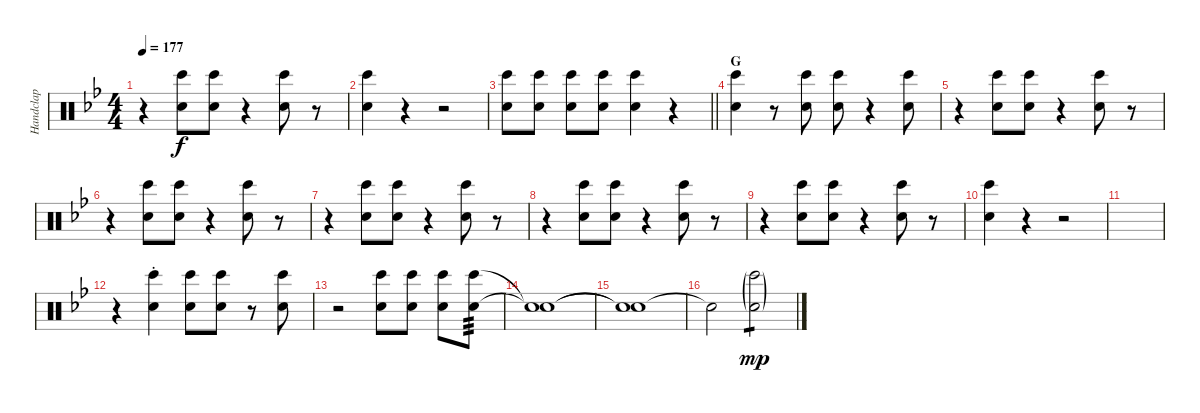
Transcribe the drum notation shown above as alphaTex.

\track ("Handclap" "Handclap") {instrument percussion}
\staff {score}
\articulation defaults
\ts (4 4)
\tempo 177
\clef neutral
\ks bb
r.4{dy f} ("Hand Clap (hit)" "Bongo High (hit)").8 ("Hand Clap (hit)" "Bongo High (hit)").8 r.4 ("Hand Clap (hit)" "Bongo High (hit)").8 r.8 |
("Hand Clap (hit)" "Bongo High (hit)").4 r.4 r.2 |
\barLineRight lightlight
("Hand Clap (hit)" "Bongo High (hit)").8 ("Hand Clap (hit)" "Bongo High (hit)").8 ("Hand Clap (hit)" "Bongo High (hit)").8 ("Hand Clap (hit)" "Bongo High (hit)").8 ("Hand Clap (hit)" "Bongo High (hit)").4 r.4 |
\section ("" "G")
("Hand Clap (hit)" "Bongo High (hit)").4 r.8 ("Hand Clap (hit)" "Bongo High (hit)").8 ("Hand Clap (hit)" "Bongo High (hit)").8 r.4 ("Hand Clap (hit)" "Bongo High (hit)").8 |
r.4 ("Hand Clap (hit)" "Bongo High (hit)").8 ("Hand Clap (hit)" "Bongo High (hit)").8 r.4 ("Hand Clap (hit)" "Bongo High (hit)").8 r.8 |
r.4 ("Hand Clap (hit)" "Bongo High (hit)").8 ("Hand Clap (hit)" "Bongo High (hit)").8 r.4 ("Hand Clap (hit)" "Bongo High (hit)").8 r.8 |
r.4 ("Hand Clap (hit)" "Bongo High (hit)").8 ("Hand Clap (hit)" "Bongo High (hit)").8 r.4 ("Hand Clap (hit)" "Bongo High (hit)").8 r.8 |
r.4 ("Hand Clap (hit)" "Bongo High (hit)").8 ("Hand Clap (hit)" "Bongo High (hit)").8 r.4 ("Hand Clap (hit)" "Bongo High (hit)").8 r.8 |
r.4 ("Hand Clap (hit)" "Bongo High (hit)").8 ("Hand Clap (hit)" "Bongo High (hit)").8 r.4 ("Hand Clap (hit)" "Bongo High (hit)").8 r.8 |
("Hand Clap (hit)" "Bongo High (hit)").4 r.4 r.2 |
|
r.4 ("Hand Clap (hit)"{st} "Bongo High (hit)"{st}).4 ("Hand Clap (hit)" "Bongo High (hit)").8 ("Hand Clap (hit)" "Bongo High (hit)").8 r.8 ("Hand Clap (hit)" "Bongo High (hit)").8 |
r.2 ("Hand Clap (hit)" "Bongo High (hit)").8 ("Hand Clap (hit)" "Bongo High (hit)").8 ("Hand Clap (hit)" "Bongo High (hit)").8 ("Hand Clap (hit)" "Bongo High (hit)").8{tp 3} |
("Snare (hit)"{t} "Snare (hit)"{t}).1 |
("Snare (hit)"{t} "Snare (hit)"{t}).1 |
"Snare (hit)"{t}.2 ("Hand Clap (hit)"{g} "Bongo High (hit)"{g}).2{tp 1 dy mp}
